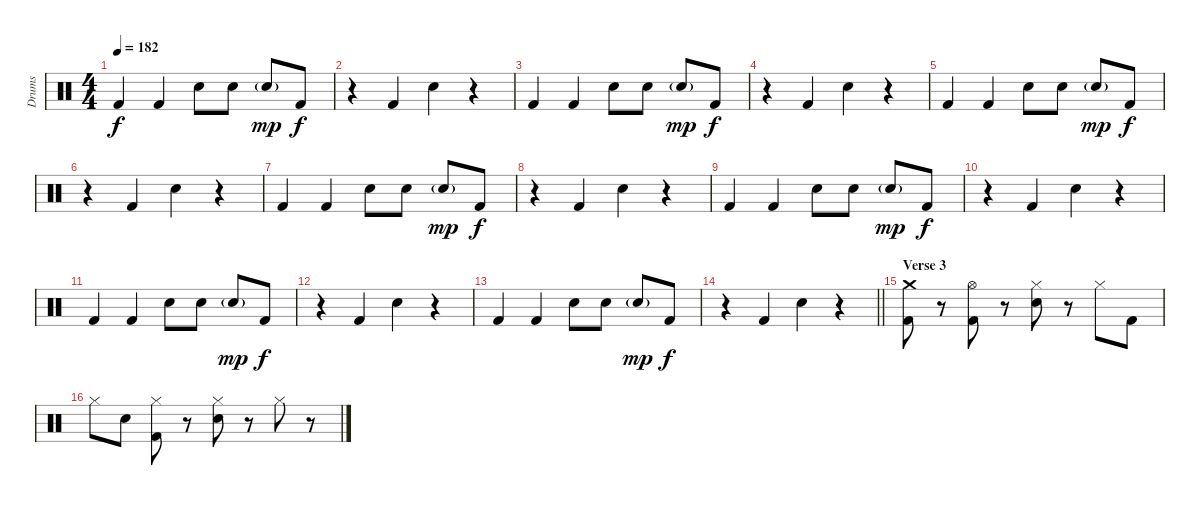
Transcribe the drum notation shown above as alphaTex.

\track ("Drums" "Drums") {instrument percussion}
\staff {score}
\articulation defaults
\ts (4 4)
\tempo 182
\clef neutral
\ks c "Kick (hit) 2".4{dy f} "Kick (hit) 2".4 "Snare (hit) 2".8 "Snare (hit) 2".8 "Snare (hit) 2"{g}.8{dy mp} "Kick (hit) 2".8{dy f}
|
r.4 "Kick (hit) 2".4 "Snare (hit) 2".4 r.4 |
"Kick (hit) 2".4 "Kick (hit) 2".4 "Snare (hit) 2".8 "Snare (hit) 2".8 "Snare (hit) 2"{g}.8{dy mp} "Kick (hit) 2".8{dy f} |
r.4 "Kick (hit) 2".4 "Snare (hit) 2".4 r.4 |
"Kick (hit) 2".4 "Kick (hit) 2".4 "Snare (hit) 2".8 "Snare (hit) 2".8 "Snare (hit) 2"{g}.8{dy mp} "Kick (hit) 2".8{dy f} |
r.4 "Kick (hit) 2".4 "Snare (hit) 2".4 r.4 |
"Kick (hit) 2".4 "Kick (hit) 2".4 "Snare (hit) 2".8 "Snare (hit) 2".8 "Snare (hit) 2"{g}.8{dy mp} "Kick (hit) 2".8{dy f} |
r.4 "Kick (hit) 2".4 "Snare (hit) 2".4 r.4 |
"Kick (hit) 2".4 "Kick (hit) 2".4 "Snare (hit) 2".8 "Snare (hit) 2".8 "Snare (hit) 2"{g}.8{dy mp} "Kick (hit) 2".8{dy f} |
r.4 "Kick (hit) 2".4 "Snare (hit) 2".4 r.4 |
"Kick (hit) 2".4 "Kick (hit) 2".4 "Snare (hit) 2".8 "Snare (hit) 2".8 "Snare (hit) 2"{g}.8{dy mp} "Kick (hit) 2".8{dy f} |
r.4 "Kick (hit) 2".4 "Snare (hit) 2".4 r.4 |
"Kick (hit) 2".4 "Kick (hit) 2".4 "Snare (hit) 2".8 "Snare (hit) 2".8 "Snare (hit) 2"{g}.8{dy mp} "Kick (hit) 2".8{dy f} |
\barLineRight lightlight
r.4 "Kick (hit) 2".4 "Snare (hit) 2".4 r.4 |
\section ("" "Verse 3")
("Crash medium (hit)" "Kick (hit) 2").8 r.8 ("Hi-Hat (open)" "Kick (hit) 2").8 r.8 ("Hi-Hat (closed)" "Snare (hit) 2").8 r.8 "Hi-Hat (closed)".8 "Kick (hit) 2".8 |
"Hi-Hat (closed)".8 "Snare (hit) 2".8 ("Hi-Hat (closed)" "Kick (hit) 2").8 r.8 ("Hi-Hat (closed)" "Snare (hit) 2").8 r.8 "Hi-Hat (closed)".8 r.8
